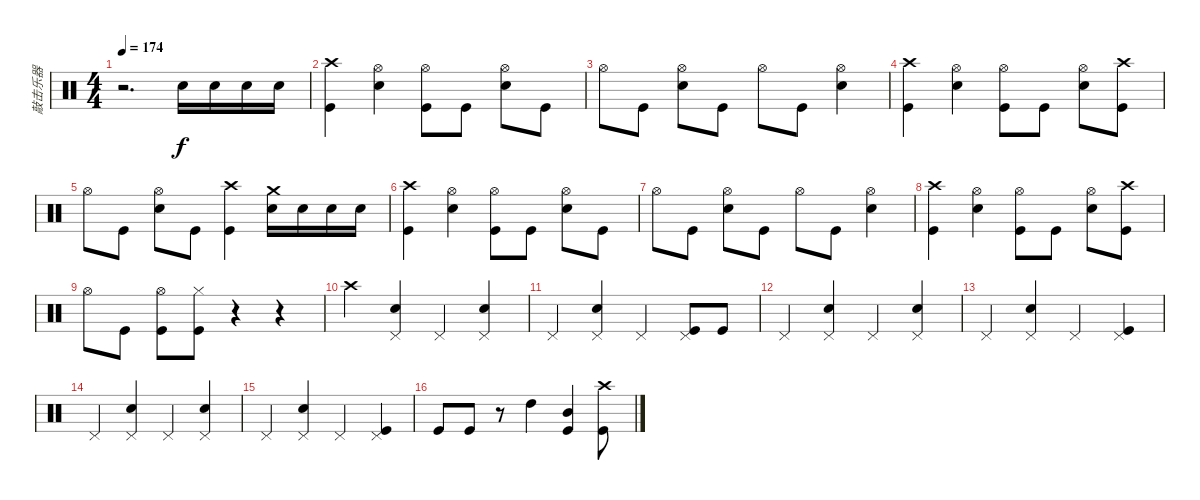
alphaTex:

\track ("敲击乐器" "敲击乐器") {instrument percussion}
\staff {score}
\articulation defaults
\ts (4 4)
\tempo 174
\clef neutral
\ks c
r.2{d dy f} "Electric Snare (hit)".16 "Electric Snare (hit)".16 "Electric Snare (hit)".16 "Electric Snare (hit)".16 |
("Kick (hit)" "Crash high (hit)").4 ("Hi-Hat (open)" "Electric Snare (hit)").4 ("Hi-Hat (open)" "Kick (hit)").8 "Kick (hit)".8 ("Hi-Hat (open)" "Electric Snare (hit)").8 "Kick (hit)".8 |
"Hi-Hat (open)".8 "Kick (hit)".8 ("Hi-Hat (open)" "Electric Snare (hit)").8 "Kick (hit)".8 "Hi-Hat (open)".8 "Kick (hit)".8 ("Electric Snare (hit)" "Hi-Hat (open)").4 |
("Kick (hit)" "Crash high (hit)").4 ("Hi-Hat (open)" "Electric Snare (hit)").4 ("Hi-Hat (open)" "Kick (hit)").8 "Kick (hit)".8 ("Hi-Hat (open)" "Electric Snare (hit)").8 ("Kick (hit)" "Crash high (hit)").8 |
"Hi-Hat (open)".8 "Kick (hit)".8 ("Hi-Hat (open)" "Electric Snare (hit)").8 "Kick (hit)".8 ("Kick (hit)" "Crash high (hit)").4 ("Electric Snare (hit)" "Crash medium (hit)").16 "Electric Snare (hit)".16 "Electric Snare (hit)".16 "Electric Snare (hit)".16 |
("Kick (hit)" "Crash high (hit)").4 ("Hi-Hat (open)" "Electric Snare (hit)").4 ("Hi-Hat (open)" "Kick (hit)").8 "Kick (hit)".8 ("Hi-Hat (open)" "Electric Snare (hit)").8 "Kick (hit)".8 |
"Hi-Hat (open)".8 "Kick (hit)".8 ("Hi-Hat (open)" "Electric Snare (hit)").8 "Kick (hit)".8 "Hi-Hat (open)".8 "Kick (hit)".8 ("Electric Snare (hit)" "Hi-Hat (open)").4 |
("Kick (hit)" "Crash high (hit)").4 ("Hi-Hat (open)" "Electric Snare (hit)").4 ("Hi-Hat (open)" "Kick (hit)").8 "Kick (hit)".8 ("Hi-Hat (open)" "Electric Snare (hit)").8 ("Kick (hit)" "Crash high (hit)").8 |
"Hi-Hat (open)".8 "Kick (hit)".8 ("Hi-Hat (open)" "Kick (hit)").8 ("Kick (hit)" "Hi-Hat (closed)").8 r.4 r.4 |
"Crash high (hit)".4 ("Electric Snare (hit)" "Pedal Hi-Hat (hit)").4 "Pedal Hi-Hat (hit)".4 ("Pedal Hi-Hat (hit)" "Electric Snare (hit)").4 |
"Pedal Hi-Hat (hit)".4 ("Electric Snare (hit)" "Pedal Hi-Hat (hit)").4 "Pedal Hi-Hat (hit)".4 ("Pedal Hi-Hat (hit)" "Kick (hit)").8 "Kick (hit)".8 |
"Pedal Hi-Hat (hit)".4 ("Electric Snare (hit)" "Pedal Hi-Hat (hit)").4 "Pedal Hi-Hat (hit)".4 ("Pedal Hi-Hat (hit)" "Electric Snare (hit)").4 |
"Pedal Hi-Hat (hit)".4 ("Electric Snare (hit)" "Pedal Hi-Hat (hit)").4 "Pedal Hi-Hat (hit)".4 ("Kick (hit)" "Pedal Hi-Hat (hit)").4 |
"Pedal Hi-Hat (hit)".4 ("Electric Snare (hit)" "Pedal Hi-Hat (hit)").4 "Pedal Hi-Hat (hit)".4 ("Pedal Hi-Hat (hit)" "Electric Snare (hit)").4 |
"Pedal Hi-Hat (hit)".4 ("Electric Snare (hit)" "Pedal Hi-Hat (hit)").4 "Pedal Hi-Hat (hit)".4 ("Pedal Hi-Hat (hit)" "Kick (hit)").4 |
"Kick (hit)".8 "Kick (hit)".8 r.8 "High Tom (hit)".4 ("Mid Tom (hit)" "Kick (hit)").4 ("Crash high (hit)" "Kick (hit)").8
